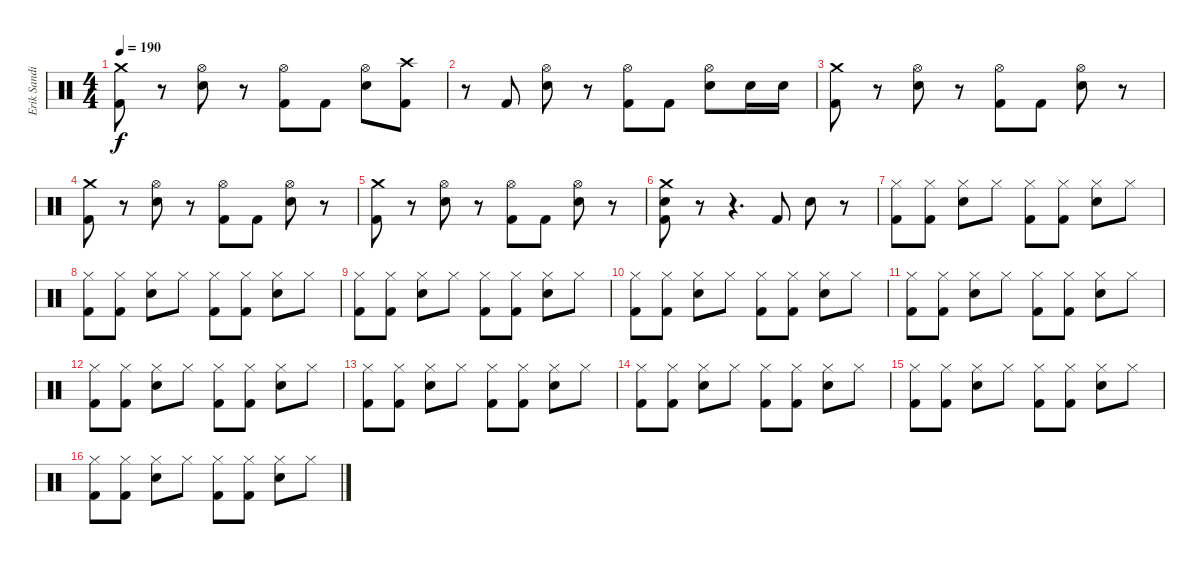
\track ("Erik Sandin" "Erik Sandi") {instrument percussion}
\staff {score}
\articulation defaults
\ts (4 4)
\tempo 190
\clef neutral
\ks c
("Crash medium (hit)" "Kick (hit) 2").8{dy f} r.8 ("Hi-Hat (open)" "Snare (hit) 2").8 r.8 ("Hi-Hat (open)" "Kick (hit) 2").8 "Kick (hit) 2".8 ("Hi-Hat (open)" "Snare (hit) 2").8 ("Crash high (hit)" "Kick (hit) 2").8 |
r.8 "Kick (hit) 2".8 ("Hi-Hat (open)" "Snare (hit) 2").8 r.8 ("Hi-Hat (open)" "Kick (hit) 2").8 "Kick (hit) 2".8 ("Hi-Hat (open)" "Snare (hit) 2").8 "Snare (hit) 2".16 "Snare (hit) 2".16 |
("Crash medium (hit)" "Kick (hit) 2").8 r.8 ("Hi-Hat (open)" "Snare (hit) 2").8 r.8 ("Hi-Hat (open)" "Kick (hit) 2").8 "Kick (hit) 2".8 ("Hi-Hat (open)" "Snare (hit) 2").8 r.8 |
("Crash medium (hit)" "Kick (hit) 2").8 r.8 ("Hi-Hat (open)" "Snare (hit) 2").8 r.8 ("Hi-Hat (open)" "Kick (hit) 2").8 "Kick (hit) 2".8 ("Hi-Hat (open)" "Snare (hit) 2").8 r.8 |
("Crash medium (hit)" "Kick (hit) 2").8 r.8 ("Hi-Hat (open)" "Snare (hit) 2").8 r.8 ("Hi-Hat (open)" "Kick (hit) 2").8 "Kick (hit) 2".8 ("Hi-Hat (open)" "Snare (hit) 2").8 r.8 |
("Crash medium (hit)" "Snare (hit) 2" "Kick (hit) 2").8 r.8 r.4{d} "Kick (hit) 2".8 "Snare (hit) 2".8 r.8 |
("Hi-Hat (closed)" "Kick (hit) 2").8 ("Hi-Hat (closed)" "Kick (hit) 2").8 ("Hi-Hat (closed)" "Snare (hit) 2").8 "Hi-Hat (closed)".8 ("Hi-Hat (closed)" "Kick (hit) 2").8 ("Hi-Hat (closed)" "Kick (hit) 2").8 ("Hi-Hat (closed)" "Snare (hit) 2").8 "Hi-Hat (closed)".8 |
("Hi-Hat (closed)" "Kick (hit) 2").8 ("Hi-Hat (closed)" "Kick (hit) 2").8 ("Hi-Hat (closed)" "Snare (hit) 2").8 "Hi-Hat (closed)".8 ("Hi-Hat (closed)" "Kick (hit) 2").8 ("Hi-Hat (closed)" "Kick (hit) 2").8 ("Hi-Hat (closed)" "Snare (hit) 2").8 "Hi-Hat (closed)".8 |
("Hi-Hat (closed)" "Kick (hit) 2").8 ("Hi-Hat (closed)" "Kick (hit) 2").8 ("Hi-Hat (closed)" "Snare (hit) 2").8 "Hi-Hat (closed)".8 ("Hi-Hat (closed)" "Kick (hit) 2").8 ("Hi-Hat (closed)" "Kick (hit) 2").8 ("Hi-Hat (closed)" "Snare (hit) 2").8 "Hi-Hat (closed)".8 |
("Hi-Hat (closed)" "Kick (hit) 2").8 ("Hi-Hat (closed)" "Kick (hit) 2").8 ("Hi-Hat (closed)" "Snare (hit) 2").8 "Hi-Hat (closed)".8 ("Hi-Hat (closed)" "Kick (hit) 2").8 ("Hi-Hat (closed)" "Kick (hit) 2").8 ("Hi-Hat (closed)" "Snare (hit) 2").8 "Hi-Hat (closed)".8 |
("Hi-Hat (closed)" "Kick (hit) 2").8 ("Hi-Hat (closed)" "Kick (hit) 2").8 ("Hi-Hat (closed)" "Snare (hit) 2").8 "Hi-Hat (closed)".8 ("Hi-Hat (closed)" "Kick (hit) 2").8 ("Hi-Hat (closed)" "Kick (hit) 2").8 ("Hi-Hat (closed)" "Snare (hit) 2").8 "Hi-Hat (closed)".8 |
("Hi-Hat (closed)" "Kick (hit) 2").8 ("Hi-Hat (closed)" "Kick (hit) 2").8 ("Hi-Hat (closed)" "Snare (hit) 2").8 "Hi-Hat (closed)".8 ("Hi-Hat (closed)" "Kick (hit) 2").8 ("Hi-Hat (closed)" "Kick (hit) 2").8 ("Hi-Hat (closed)" "Snare (hit) 2").8 "Hi-Hat (closed)".8 |
("Hi-Hat (closed)" "Kick (hit) 2").8 ("Hi-Hat (closed)" "Kick (hit) 2").8 ("Hi-Hat (closed)" "Snare (hit) 2").8 "Hi-Hat (closed)".8 ("Hi-Hat (closed)" "Kick (hit) 2").8 ("Hi-Hat (closed)" "Kick (hit) 2").8 ("Hi-Hat (closed)" "Snare (hit) 2").8 "Hi-Hat (closed)".8 |
("Hi-Hat (closed)" "Kick (hit) 2").8 ("Hi-Hat (closed)" "Kick (hit) 2").8 ("Hi-Hat (closed)" "Snare (hit) 2").8 "Hi-Hat (closed)".8 ("Hi-Hat (closed)" "Kick (hit) 2").8 ("Hi-Hat (closed)" "Kick (hit) 2").8 ("Hi-Hat (closed)" "Snare (hit) 2").8 "Hi-Hat (closed)".8 |
("Hi-Hat (closed)" "Kick (hit) 2").8 ("Hi-Hat (closed)" "Kick (hit) 2").8 ("Hi-Hat (closed)" "Snare (hit) 2").8 "Hi-Hat (closed)".8 ("Hi-Hat (closed)" "Kick (hit) 2").8 ("Hi-Hat (closed)" "Kick (hit) 2").8 ("Hi-Hat (closed)" "Snare (hit) 2").8 "Hi-Hat (closed)".8 |
("Hi-Hat (closed)" "Kick (hit) 2").8 ("Hi-Hat (closed)" "Kick (hit) 2").8 ("Hi-Hat (closed)" "Snare (hit) 2").8 "Hi-Hat (closed)".8 ("Hi-Hat (closed)" "Kick (hit) 2").8 ("Hi-Hat (closed)" "Kick (hit) 2").8 ("Hi-Hat (closed)" "Snare (hit) 2").8 "Hi-Hat (closed)".8
